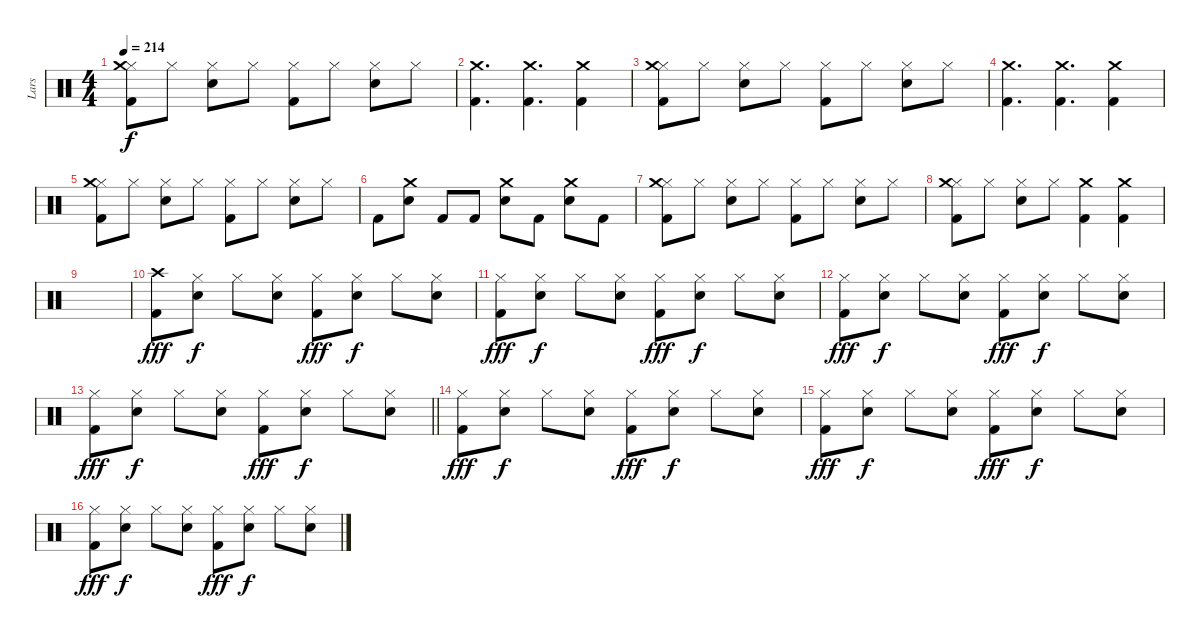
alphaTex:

\track ("Lars" "Lars") {instrument percussion}
\staff {score}
\articulation defaults
\ts (4 4)
\tempo 214
\clef neutral
\ks c
("Hi-Hat (closed)" "Kick (hit) 2" "Crash medium (hit)").8{dy f} "Hi-Hat (closed)".8 ("Hi-Hat (closed)" "Snare (hit) 2").8 "Hi-Hat (closed)".8 ("Hi-Hat (closed)" "Kick (hit) 2").8 "Hi-Hat (closed)".8 ("Hi-Hat (closed)" "Snare (hit) 2").8 "Hi-Hat (closed)".8 |
("Kick (hit) 2" "Crash medium (hit)").4{d} ("Crash medium (hit)" "Kick (hit) 2").4{d} ("Kick (hit) 2" "Crash medium (hit)").4 |
("Hi-Hat (closed)" "Kick (hit) 2" "Crash medium (hit)").8 "Hi-Hat (closed)".8 ("Hi-Hat (closed)" "Snare (hit) 2").8 "Hi-Hat (closed)".8 ("Hi-Hat (closed)" "Kick (hit) 2").8 "Hi-Hat (closed)".8 ("Hi-Hat (closed)" "Snare (hit) 2").8 "Hi-Hat (closed)".8 |
("Kick (hit) 2" "Crash medium (hit)").4{d} ("Crash medium (hit)" "Kick (hit) 2").4{d} ("Kick (hit) 2" "Crash medium (hit)").4 |
("Hi-Hat (closed)" "Kick (hit) 2" "Crash medium (hit)").8 "Hi-Hat (closed)".8 ("Hi-Hat (closed)" "Snare (hit) 2").8 "Hi-Hat (closed)".8 ("Hi-Hat (closed)" "Kick (hit) 2").8 "Hi-Hat (closed)".8 ("Hi-Hat (closed)" "Snare (hit) 2").8 "Hi-Hat (closed)".8 |
"Kick (hit) 2".8 ("Snare (hit) 2" "Crash medium (hit)").8 "Kick (hit) 2".8 "Kick (hit) 2".8 ("Snare (hit) 2" "Crash medium (hit)").8 "Kick (hit) 2".8 ("Snare (hit) 2" "Crash medium (hit)").8 "Kick (hit) 2".8 |
("Hi-Hat (closed)" "Kick (hit) 2" "Crash medium (hit)").8 "Hi-Hat (closed)".8 ("Hi-Hat (closed)" "Snare (hit) 2").8 "Hi-Hat (closed)".8 ("Hi-Hat (closed)" "Kick (hit) 2").8 "Hi-Hat (closed)".8 ("Hi-Hat (closed)" "Snare (hit) 2").8 "Hi-Hat (closed)".8 |
("Hi-Hat (closed)" "Kick (hit) 2" "Crash medium (hit)").8 "Hi-Hat (closed)".8 ("Hi-Hat (closed)" "Snare (hit) 2").8 "Hi-Hat (closed)".8 ("Kick (hit) 2" "Crash medium (hit)").4 ("Kick (hit) 2" "Crash medium (hit)").4 |
|
("Crash high (hit)" "Kick (hit) 2").8{dy fff} ("Hi-Hat (closed)" "Snare (hit) 2").8{dy f} "Hi-Hat (closed)".8 ("Hi-Hat (closed)" "Snare (hit) 2").8 ("Hi-Hat (closed)" "Kick (hit) 2").8{dy fff} ("Hi-Hat (closed)" "Snare (hit) 2").8{dy f} "Hi-Hat (closed)".8 ("Hi-Hat (closed)" "Snare (hit) 2").8 |
("Hi-Hat (closed)" "Kick (hit) 2").8{dy fff} ("Hi-Hat (closed)" "Snare (hit) 2").8{dy f} "Hi-Hat (closed)".8 ("Hi-Hat (closed)" "Snare (hit) 2").8 ("Hi-Hat (closed)" "Kick (hit) 2").8{dy fff} ("Hi-Hat (closed)" "Snare (hit) 2").8{dy f} "Hi-Hat (closed)".8 ("Hi-Hat (closed)" "Snare (hit) 2").8 |
("Hi-Hat (closed)" "Kick (hit) 2").8{dy fff} ("Hi-Hat (closed)" "Snare (hit) 2").8{dy f} "Hi-Hat (closed)".8 ("Hi-Hat (closed)" "Snare (hit) 2").8 ("Hi-Hat (closed)" "Kick (hit) 2").8{dy fff} ("Hi-Hat (closed)" "Snare (hit) 2").8{dy f} "Hi-Hat (closed)".8 ("Hi-Hat (closed)" "Snare (hit) 2").8 |
\barLineRight lightlight
("Hi-Hat (closed)" "Kick (hit) 2").8{dy fff} ("Hi-Hat (closed)" "Snare (hit) 2").8{dy f} "Hi-Hat (closed)".8 ("Hi-Hat (closed)" "Snare (hit) 2").8 ("Hi-Hat (closed)" "Kick (hit) 2").8{dy fff} ("Hi-Hat (closed)" "Snare (hit) 2").8{dy f} "Hi-Hat (closed)".8 ("Hi-Hat (closed)" "Snare (hit) 2").8 |
("Hi-Hat (closed)" "Kick (hit) 2").8{dy fff} ("Hi-Hat (closed)" "Snare (hit) 2").8{dy f} "Hi-Hat (closed)".8 ("Hi-Hat (closed)" "Snare (hit) 2").8 ("Hi-Hat (closed)" "Kick (hit) 2").8{dy fff} ("Hi-Hat (closed)" "Snare (hit) 2").8{dy f} "Hi-Hat (closed)".8 ("Hi-Hat (closed)" "Snare (hit) 2").8 |
("Hi-Hat (closed)" "Kick (hit) 2").8{dy fff} ("Hi-Hat (closed)" "Snare (hit) 2").8{dy f} "Hi-Hat (closed)".8 ("Hi-Hat (closed)" "Snare (hit) 2").8 ("Hi-Hat (closed)" "Kick (hit) 2").8{dy fff} ("Hi-Hat (closed)" "Snare (hit) 2").8{dy f} "Hi-Hat (closed)".8 ("Hi-Hat (closed)" "Snare (hit) 2").8 |
("Hi-Hat (closed)" "Kick (hit) 2").8{dy fff} ("Hi-Hat (closed)" "Snare (hit) 2").8{dy f} "Hi-Hat (closed)".8 ("Hi-Hat (closed)" "Snare (hit) 2").8 ("Hi-Hat (closed)" "Kick (hit) 2").8{dy fff} ("Hi-Hat (closed)" "Snare (hit) 2").8{dy f} "Hi-Hat (closed)".8 ("Hi-Hat (closed)" "Snare (hit) 2").8
